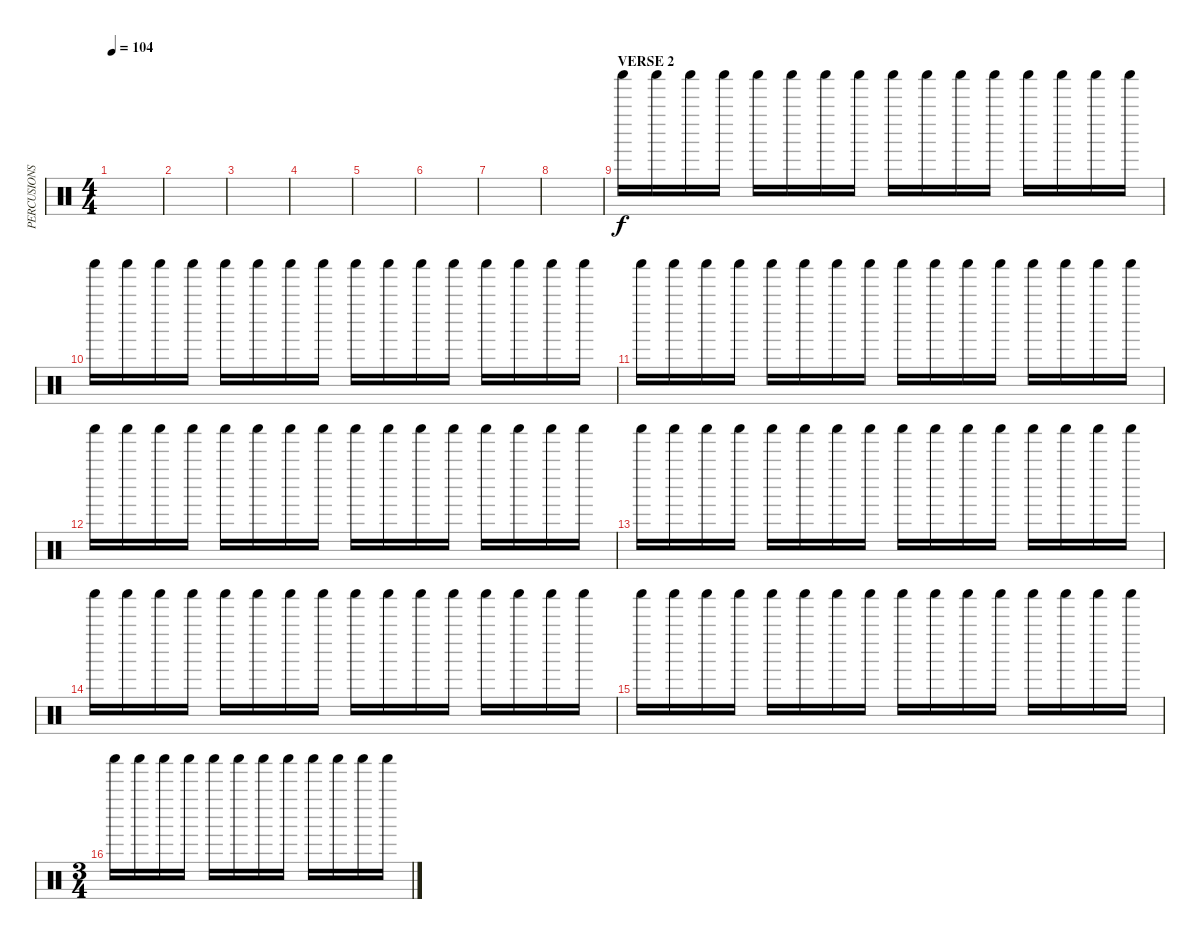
\track ("PERCUSIONS" "PERCUSIONS") {instrument percussion}
\staff {score}
\articulation defaults
\ts (4 4)
\tempo 104
\clef neutral
\ks c
|
|
|
|
|
|
|
|
\section ("" "VERSE 2")
"Shaker (hit)".16 "Shaker (hit)".16 "Shaker (hit)".16 "Shaker (hit)".16 "Shaker (hit)".16 "Shaker (hit)".16 "Shaker (hit)".16 "Shaker (hit)".16 "Shaker (hit)".16 "Shaker (hit)".16 "Shaker (hit)".16 "Shaker (hit)".16 "Shaker (hit)".16 "Shaker (hit)".16 "Shaker (hit)".16 "Shaker (hit)".16 |
"Shaker (hit)".16 "Shaker (hit)".16 "Shaker (hit)".16 "Shaker (hit)".16 "Shaker (hit)".16 "Shaker (hit)".16 "Shaker (hit)".16 "Shaker (hit)".16 "Shaker (hit)".16 "Shaker (hit)".16 "Shaker (hit)".16 "Shaker (hit)".16 "Shaker (hit)".16 "Shaker (hit)".16 "Shaker (hit)".16 "Shaker (hit)".16 |
"Shaker (hit)".16 "Shaker (hit)".16 "Shaker (hit)".16 "Shaker (hit)".16 "Shaker (hit)".16 "Shaker (hit)".16 "Shaker (hit)".16 "Shaker (hit)".16 "Shaker (hit)".16 "Shaker (hit)".16 "Shaker (hit)".16 "Shaker (hit)".16 "Shaker (hit)".16 "Shaker (hit)".16 "Shaker (hit)".16 "Shaker (hit)".16 |
"Shaker (hit)".16 "Shaker (hit)".16 "Shaker (hit)".16 "Shaker (hit)".16 "Shaker (hit)".16 "Shaker (hit)".16 "Shaker (hit)".16 "Shaker (hit)".16 "Shaker (hit)".16 "Shaker (hit)".16 "Shaker (hit)".16 "Shaker (hit)".16 "Shaker (hit)".16 "Shaker (hit)".16 "Shaker (hit)".16 "Shaker (hit)".16 |
"Shaker (hit)".16 "Shaker (hit)".16 "Shaker (hit)".16 "Shaker (hit)".16 "Shaker (hit)".16 "Shaker (hit)".16 "Shaker (hit)".16 "Shaker (hit)".16 "Shaker (hit)".16 "Shaker (hit)".16 "Shaker (hit)".16 "Shaker (hit)".16 "Shaker (hit)".16 "Shaker (hit)".16 "Shaker (hit)".16 "Shaker (hit)".16 |
"Shaker (hit)".16 "Shaker (hit)".16 "Shaker (hit)".16 "Shaker (hit)".16 "Shaker (hit)".16 "Shaker (hit)".16 "Shaker (hit)".16 "Shaker (hit)".16 "Shaker (hit)".16 "Shaker (hit)".16 "Shaker (hit)".16 "Shaker (hit)".16 "Shaker (hit)".16 "Shaker (hit)".16 "Shaker (hit)".16 "Shaker (hit)".16 |
"Shaker (hit)".16 "Shaker (hit)".16 "Shaker (hit)".16 "Shaker (hit)".16 "Shaker (hit)".16 "Shaker (hit)".16 "Shaker (hit)".16 "Shaker (hit)".16 "Shaker (hit)".16 "Shaker (hit)".16 "Shaker (hit)".16 "Shaker (hit)".16 "Shaker (hit)".16 "Shaker (hit)".16 "Shaker (hit)".16 "Shaker (hit)".16 |
\ts (3 4)
"Shaker (hit)".16 "Shaker (hit)".16 "Shaker (hit)".16 "Shaker (hit)".16 "Shaker (hit)".16 "Shaker (hit)".16 "Shaker (hit)".16 "Shaker (hit)".16 "Shaker (hit)".16 "Shaker (hit)".16 "Shaker (hit)".16 "Shaker (hit)".16
